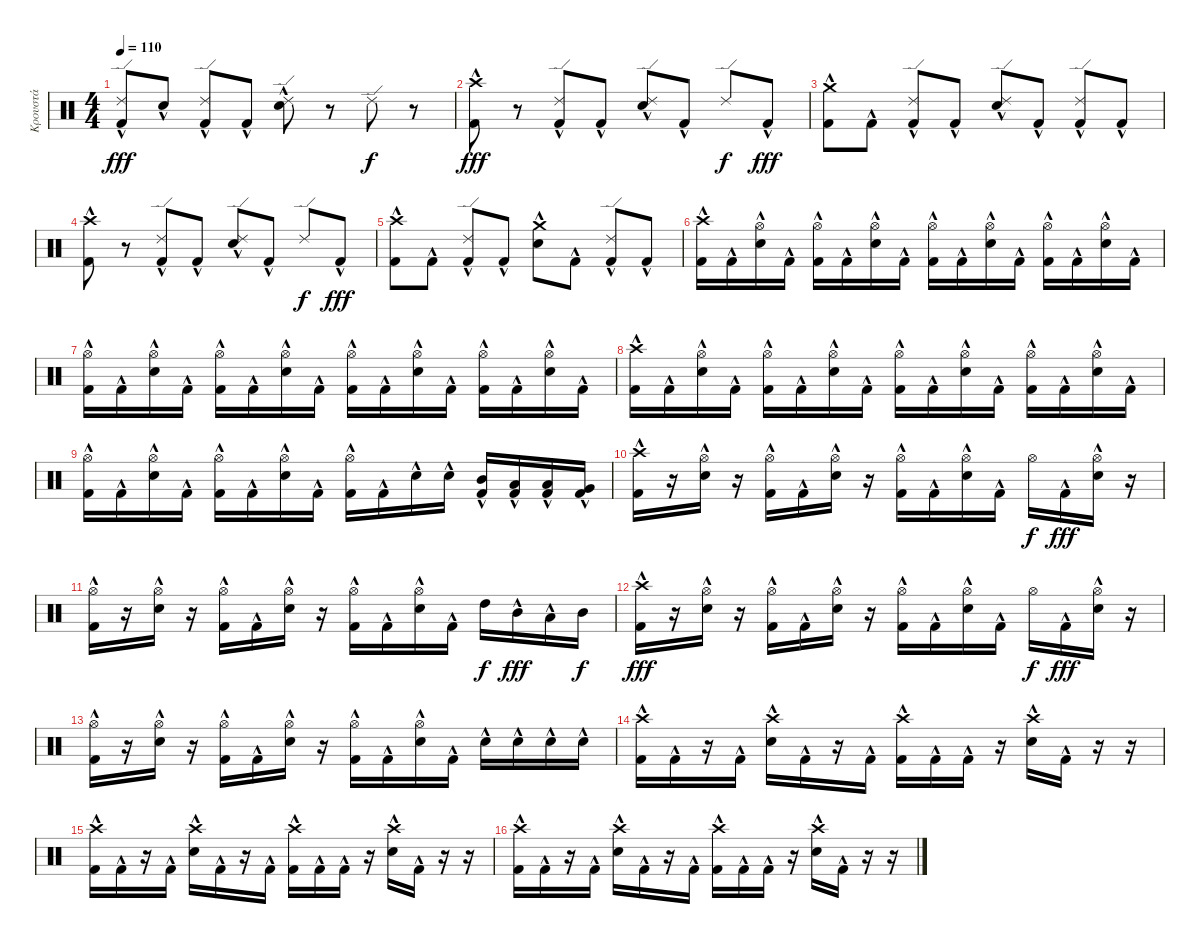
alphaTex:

\track ("Κρουστά" "Κρουστά") {instrument percussion}
\staff {score}
\articulation defaults
\ts (4 4)
\tempo 110
\clef neutral
\ks c
("Kick (hit) 2"{hac} "Ride (edge) 2").8{dy fff} "Electric Snare (hit)"{hac}.8 ("Kick (hit) 2"{hac} "Ride (edge) 2").8 "Kick (hit) 2"{hac}.8 ("Electric Snare (hit)"{hac} "Ride (edge) 2").8 r.8 "Ride (edge) 2".8{dy f} r.8 |
("Crash high (hit)" "Kick (hit) 2"{hac}).8{dy fff} r.8 ("Ride (edge) 2" "Kick (hit) 2"{hac}).8 "Kick (hit) 2"{hac}.8 ("Electric Snare (hit)"{hac} "Ride (edge) 2").8 "Kick (hit) 2"{hac}.8 "Ride (edge) 2".8{dy f} "Kick (hit) 2"{hac}.8{dy fff} |
("Kick (hit) 2"{hac} "Crash medium (hit)").8 "Kick (hit) 2"{hac}.8 ("Kick (hit) 2"{hac} "Ride (edge) 2").8 "Kick (hit) 2"{hac}.8 ("Electric Snare (hit)"{hac} "Ride (edge) 2").8 "Kick (hit) 2"{hac}.8 ("Kick (hit) 2"{hac} "Ride (edge) 2").8 "Kick (hit) 2"{hac}.8 |
("Crash high (hit)" "Kick (hit) 2"{hac}).8 r.8 ("Ride (edge) 2" "Kick (hit) 2"{hac}).8 "Kick (hit) 2"{hac}.8 ("Electric Snare (hit)"{hac} "Ride (edge) 2").8 "Kick (hit) 2"{hac}.8 "Ride (edge) 2".8{dy f} "Kick (hit) 2"{hac}.8{dy fff} |
("Kick (hit) 2"{hac} "Crash high (hit)").8 "Kick (hit) 2"{hac}.8 ("Kick (hit) 2"{hac} "Ride (edge) 2").8 "Kick (hit) 2"{hac}.8 ("Electric Snare (hit)"{hac} "Crash medium (hit)").8 "Kick (hit) 2"{hac}.8 ("Kick (hit) 2"{hac} "Ride (edge) 2").8 "Kick (hit) 2"{hac}.8 |
("Crash high (hit)" "Kick (hit) 2"{hac}).16 "Kick (hit) 2"{hac}.16 ("Hi-Hat (open)" "Electric Snare (hit)"{hac}).16 "Kick (hit) 2"{hac}.16 ("Hi-Hat (open)" "Kick (hit) 2"{hac}).16 "Kick (hit) 2"{hac}.16 ("Hi-Hat (open)" "Electric Snare (hit)"{hac}).16 "Kick (hit) 2"{hac}.16 ("Hi-Hat (open)" "Kick (hit) 2"{hac}).16 "Kick (hit) 2"{hac}.16 ("Hi-Hat (open)" "Electric Snare (hit)"{hac}).16 "Kick (hit) 2"{hac}.16 ("Hi-Hat (open)" "Kick (hit) 2"{hac}).16 "Kick (hit) 2"{hac}.16 ("Hi-Hat (open)" "Electric Snare (hit)"{hac}).16 "Kick (hit) 2"{hac}.16 |
("Hi-Hat (open)" "Kick (hit) 2"{hac}).16 "Kick (hit) 2"{hac}.16 ("Hi-Hat (open)" "Electric Snare (hit)"{hac}).16 "Kick (hit) 2"{hac}.16 ("Hi-Hat (open)" "Kick (hit) 2"{hac}).16 "Kick (hit) 2"{hac}.16 ("Hi-Hat (open)" "Electric Snare (hit)"{hac}).16 "Kick (hit) 2"{hac}.16 ("Hi-Hat (open)" "Kick (hit) 2"{hac}).16 "Kick (hit) 2"{hac}.16 ("Hi-Hat (open)" "Electric Snare (hit)"{hac}).16 "Kick (hit) 2"{hac}.16 ("Hi-Hat (open)" "Kick (hit) 2"{hac}).16 "Kick (hit) 2"{hac}.16 ("Hi-Hat (open)" "Electric Snare (hit)"{hac}).16 "Kick (hit) 2"{hac}.16 |
("Crash high (hit)" "Kick (hit) 2"{hac}).16 "Kick (hit) 2"{hac}.16 ("Hi-Hat (open)" "Electric Snare (hit)"{hac}).16 "Kick (hit) 2"{hac}.16 ("Hi-Hat (open)" "Kick (hit) 2"{hac}).16 "Kick (hit) 2"{hac}.16 ("Hi-Hat (open)" "Electric Snare (hit)"{hac}).16 "Kick (hit) 2"{hac}.16 ("Hi-Hat (open)" "Kick (hit) 2"{hac}).16 "Kick (hit) 2"{hac}.16 ("Hi-Hat (open)" "Electric Snare (hit)"{hac}).16 "Kick (hit) 2"{hac}.16 ("Hi-Hat (open)" "Kick (hit) 2"{hac}).16 "Kick (hit) 2"{hac}.16 ("Hi-Hat (open)" "Electric Snare (hit)"{hac}).16 "Kick (hit) 2"{hac}.16 |
("Hi-Hat (open)" "Kick (hit) 2"{hac}).16 "Kick (hit) 2"{hac}.16 ("Hi-Hat (open)" "Electric Snare (hit)"{hac}).16 "Kick (hit) 2"{hac}.16 ("Hi-Hat (open)" "Kick (hit) 2"{hac}).16 "Kick (hit) 2"{hac}.16 ("Hi-Hat (open)" "Electric Snare (hit)"{hac}).16 "Kick (hit) 2"{hac}.16 ("Hi-Hat (open)" "Kick (hit) 2"{hac}).16 "Kick (hit) 2"{hac}.16 "Electric Snare (hit)"{hac}.16 "Electric Snare (hit)"{hac}.16 ("Mid Tom (hit)" "Kick (hit) 2"{hac}).16 ("Low Tom (hit)" "Kick (hit) 2"{hac}).16 ("Low Tom (hit)" "Kick (hit) 2"{hac}).16 ("Very Low Tom (hit)" "Kick (hit) 2"{hac}).16 |
("Crash high (hit)" "Kick (hit) 2"{hac}).16 r.16 ("Hi-Hat (open)" "Electric Snare (hit)"{hac}).16 r.16 ("Hi-Hat (open)" "Kick (hit) 2"{hac}).16 "Kick (hit) 2"{hac}.16 ("Hi-Hat (open)" "Electric Snare (hit)"{hac}).16 r.16 ("Hi-Hat (open)" "Kick (hit) 2"{hac}).16 "Kick (hit) 2"{hac}.16 ("Hi-Hat (open)" "Electric Snare (hit)"{hac}).16 "Kick (hit) 2"{hac}.16 "Hi-Hat (open)".16{dy f} "Kick (hit) 2"{hac}.16{dy fff} ("Hi-Hat (open)" "Electric Snare (hit)"{hac}).16 r.16 |
("Hi-Hat (open)" "Kick (hit) 2"{hac}).16 r.16 ("Hi-Hat (open)" "Electric Snare (hit)"{hac}).16 r.16 ("Hi-Hat (open)" "Kick (hit) 2"{hac}).16 "Kick (hit) 2"{hac}.16 ("Hi-Hat (open)" "Electric Snare (hit)"{hac}).16 r.16 ("Hi-Hat (open)" "Kick (hit) 2"{hac}).16 "Kick (hit) 2"{hac}.16 ("Hi-Hat (open)" "Electric Snare (hit)"{hac}).16 "Kick (hit) 2"{hac}.16 "High Tom (hit)".16{dy f} "Mid Tom (hit)"{hac}.16{dy fff} "Low Tom (hit)"{hac}.16 "Mid Tom (hit)".16{dy f} |
("Crash high (hit)" "Kick (hit) 2"{hac}).16{dy fff} r.16 ("Hi-Hat (open)" "Electric Snare (hit)"{hac}).16 r.16 ("Hi-Hat (open)" "Kick (hit) 2"{hac}).16 "Kick (hit) 2"{hac}.16 ("Hi-Hat (open)" "Electric Snare (hit)"{hac}).16 r.16 ("Hi-Hat (open)" "Kick (hit) 2"{hac}).16 "Kick (hit) 2"{hac}.16 ("Hi-Hat (open)" "Electric Snare (hit)"{hac}).16 "Kick (hit) 2"{hac}.16 "Hi-Hat (open)".16{dy f} "Kick (hit) 2"{hac}.16{dy fff} ("Hi-Hat (open)" "Electric Snare (hit)"{hac}).16 r.16 |
("Hi-Hat (open)" "Kick (hit) 2"{hac}).16 r.16 ("Hi-Hat (open)" "Electric Snare (hit)"{hac}).16 r.16 ("Hi-Hat (open)" "Kick (hit) 2"{hac}).16 "Kick (hit) 2"{hac}.16 ("Hi-Hat (open)" "Electric Snare (hit)"{hac}).16 r.16 ("Hi-Hat (open)" "Kick (hit) 2"{hac}).16 "Kick (hit) 2"{hac}.16 ("Hi-Hat (open)" "Electric Snare (hit)"{hac}).16 "Kick (hit) 2"{hac}.16 "Electric Snare (hit)"{hac}.16 "Electric Snare (hit)"{hac}.16 "Electric Snare (hit)"{hac}.16 "Electric Snare (hit)"{hac}.16 |
("Crash high (hit)" "Kick (hit) 2"{hac}).16 "Kick (hit) 2"{hac}.16 r.16 "Kick (hit) 2"{hac}.16 ("Crash high (hit)" "Electric Snare (hit)"{hac}).16 "Kick (hit) 2"{hac}.16 r.16 "Kick (hit) 2"{hac}.16 ("Crash high (hit)" "Kick (hit) 2"{hac}).16 "Kick (hit) 2"{hac}.16 "Kick (hit) 2"{hac}.16 r.16 ("Crash high (hit)" "Electric Snare (hit)"{hac}).16 "Kick (hit) 2"{hac}.16 r.16 r.16 |
("Crash high (hit)" "Kick (hit) 2"{hac}).16 "Kick (hit) 2"{hac}.16 r.16 "Kick (hit) 2"{hac}.16 ("Crash high (hit)" "Electric Snare (hit)"{hac}).16 "Kick (hit) 2"{hac}.16 r.16 "Kick (hit) 2"{hac}.16 ("Crash high (hit)" "Kick (hit) 2"{hac}).16 "Kick (hit) 2"{hac}.16 "Kick (hit) 2"{hac}.16 r.16 ("Crash high (hit)" "Electric Snare (hit)"{hac}).16 "Kick (hit) 2"{hac}.16 r.16 r.16 |
("Crash high (hit)" "Kick (hit) 2"{hac}).16 "Kick (hit) 2"{hac}.16 r.16 "Kick (hit) 2"{hac}.16 ("Crash high (hit)" "Electric Snare (hit)"{hac}).16 "Kick (hit) 2"{hac}.16 r.16 "Kick (hit) 2"{hac}.16 ("Crash high (hit)" "Kick (hit) 2"{hac}).16 "Kick (hit) 2"{hac}.16 "Kick (hit) 2"{hac}.16 r.16 ("Crash high (hit)" "Electric Snare (hit)"{hac}).16 "Kick (hit) 2"{hac}.16 r.16 r.16
